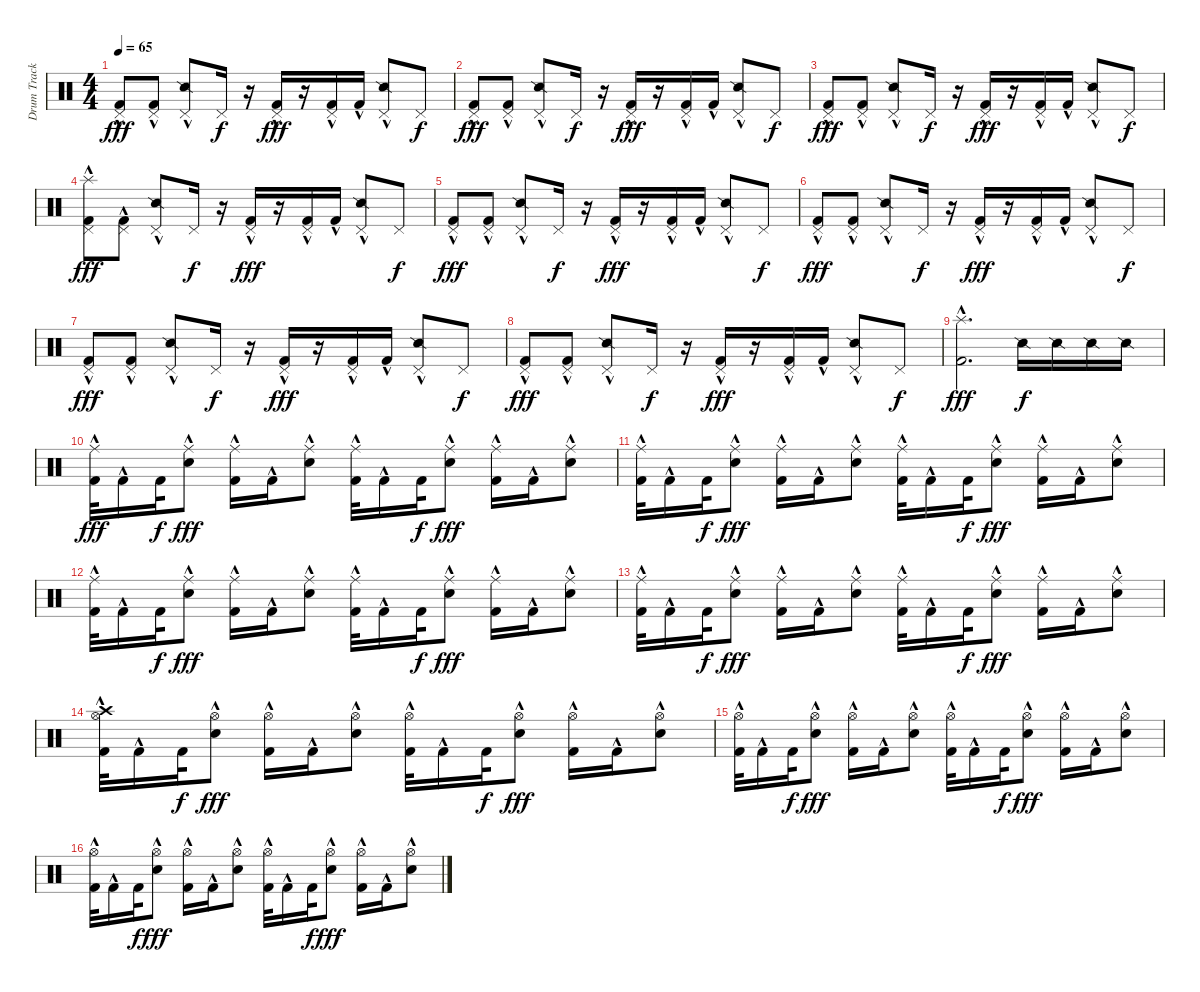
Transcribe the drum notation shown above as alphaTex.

\track ("Drum Track" "Drum Track") {instrument percussion}
\staff {score}
\articulation defaults
\ts (4 4)
\tempo 65
\clef neutral
\ks c
("Pedal Hi-Hat (hit)" "Kick (hit) 2"{hac}).8{dy fff} ("Pedal Hi-Hat (hit)" "Kick (hit) 2"{hac}).8 ("Pedal Hi-Hat (hit)" "Snare (side stick) 2"{hac}).8 "Pedal Hi-Hat (hit)".16{dy f} r.16 ("Pedal Hi-Hat (hit)" "Kick (hit) 2"{hac}).16{dy fff} r.16 ("Pedal Hi-Hat (hit)" "Kick (hit) 2"{hac}).16 "Kick (hit) 2"{hac}.16 ("Pedal Hi-Hat (hit)" "Snare (side stick) 2"{hac}).8 "Pedal Hi-Hat (hit)".8{dy f} |
("Pedal Hi-Hat (hit)" "Kick (hit) 2"{hac}).8{dy fff} ("Pedal Hi-Hat (hit)" "Kick (hit) 2"{hac}).8 ("Pedal Hi-Hat (hit)" "Snare (side stick) 2"{hac}).8 "Pedal Hi-Hat (hit)".16{dy f} r.16 ("Pedal Hi-Hat (hit)" "Kick (hit) 2"{hac}).16{dy fff} r.16 ("Pedal Hi-Hat (hit)" "Kick (hit) 2"{hac}).16 "Kick (hit) 2"{hac}.16 ("Pedal Hi-Hat (hit)" "Snare (side stick) 2"{hac}).8 "Pedal Hi-Hat (hit)".8{dy f} |
("Pedal Hi-Hat (hit)" "Kick (hit) 2"{hac}).8{dy fff} ("Pedal Hi-Hat (hit)" "Kick (hit) 2"{hac}).8 ("Pedal Hi-Hat (hit)" "Snare (side stick) 2"{hac}).8 "Pedal Hi-Hat (hit)".16{dy f} r.16 ("Pedal Hi-Hat (hit)" "Kick (hit) 2"{hac}).16{dy fff} r.16 ("Pedal Hi-Hat (hit)" "Kick (hit) 2"{hac}).16 "Kick (hit) 2"{hac}.16 ("Pedal Hi-Hat (hit)" "Snare (side stick) 2"{hac}).8 "Pedal Hi-Hat (hit)".8{dy f} |
("Splash (hit)" "Pedal Hi-Hat (hit)" "Kick (hit) 2"{hac}).8{dy fff} ("Pedal Hi-Hat (hit)" "Kick (hit) 2"{hac}).8 ("Pedal Hi-Hat (hit)" "Snare (side stick) 2"{hac}).8 "Pedal Hi-Hat (hit)".16{dy f} r.16 ("Pedal Hi-Hat (hit)" "Kick (hit) 2"{hac}).16{dy fff} r.16 ("Pedal Hi-Hat (hit)" "Kick (hit) 2"{hac}).16 "Kick (hit) 2"{hac}.16 ("Pedal Hi-Hat (hit)" "Snare (side stick) 2"{hac}).8 "Pedal Hi-Hat (hit)".8{dy f} |
("Pedal Hi-Hat (hit)" "Kick (hit) 2"{hac}).8{dy fff} ("Pedal Hi-Hat (hit)" "Kick (hit) 2"{hac}).8 ("Pedal Hi-Hat (hit)" "Snare (side stick) 2"{hac}).8 "Pedal Hi-Hat (hit)".16{dy f} r.16 ("Pedal Hi-Hat (hit)" "Kick (hit) 2"{hac}).16{dy fff} r.16 ("Pedal Hi-Hat (hit)" "Kick (hit) 2"{hac}).16 "Kick (hit) 2"{hac}.16 ("Pedal Hi-Hat (hit)" "Snare (side stick) 2"{hac}).8 "Pedal Hi-Hat (hit)".8{dy f} |
("Pedal Hi-Hat (hit)" "Kick (hit) 2"{hac}).8{dy fff} ("Pedal Hi-Hat (hit)" "Kick (hit) 2"{hac}).8 ("Pedal Hi-Hat (hit)" "Snare (side stick) 2"{hac}).8 "Pedal Hi-Hat (hit)".16{dy f} r.16 ("Pedal Hi-Hat (hit)" "Kick (hit) 2"{hac}).16{dy fff} r.16 ("Pedal Hi-Hat (hit)" "Kick (hit) 2"{hac}).16 "Kick (hit) 2"{hac}.16 ("Pedal Hi-Hat (hit)" "Snare (side stick) 2"{hac}).8 "Pedal Hi-Hat (hit)".8{dy f} |
("Pedal Hi-Hat (hit)" "Kick (hit) 2"{hac}).8{dy fff} ("Pedal Hi-Hat (hit)" "Kick (hit) 2"{hac}).8 ("Pedal Hi-Hat (hit)" "Snare (side stick) 2"{hac}).8 "Pedal Hi-Hat (hit)".16{dy f} r.16 ("Pedal Hi-Hat (hit)" "Kick (hit) 2"{hac}).16{dy fff} r.16 ("Pedal Hi-Hat (hit)" "Kick (hit) 2"{hac}).16 "Kick (hit) 2"{hac}.16 ("Pedal Hi-Hat (hit)" "Snare (side stick) 2"{hac}).8 "Pedal Hi-Hat (hit)".8{dy f} |
("Pedal Hi-Hat (hit)" "Kick (hit) 2"{hac}).8{dy fff} ("Pedal Hi-Hat (hit)" "Kick (hit) 2"{hac}).8 ("Pedal Hi-Hat (hit)" "Snare (side stick) 2"{hac}).8 "Pedal Hi-Hat (hit)".16{dy f} r.16 ("Pedal Hi-Hat (hit)" "Kick (hit) 2"{hac}).16{dy fff} r.16 ("Pedal Hi-Hat (hit)" "Kick (hit) 2"{hac}).16 "Kick (hit) 2"{hac}.16 ("Pedal Hi-Hat (hit)" "Snare (side stick) 2"{hac}).8 "Pedal Hi-Hat (hit)".8{dy f} |
("Splash (hit)" "Kick (hit) 2"{hac}).2{d dy fff} "Snare (side stick) 2".16{dy f} "Snare (side stick) 2".16 "Snare (side stick) 2".16 "Snare (side stick) 2".16 |
("Ride (middle)" "Kick (hit) 2"{hac}).32{dy fff} "Kick (hit) 2"{hac}.16 "Kick (hit) 2".32{dy f} ("Ride (middle)" "Electric Snare (hit)"{hac}).8{dy fff} ("Ride (middle)" "Kick (hit) 2"{hac}).16 "Kick (hit) 2"{hac}.16 ("Ride (middle)" "Electric Snare (hit)"{hac}).8 ("Ride (middle)" "Kick (hit) 2"{hac}).32 "Kick (hit) 2"{hac}.16 "Kick (hit) 2".32{dy f} ("Ride (middle)" "Electric Snare (hit)"{hac}).8{dy fff} ("Ride (middle)" "Kick (hit) 2"{hac}).16 "Kick (hit) 2"{hac}.16 ("Ride (middle)" "Electric Snare (hit)"{hac}).8 |
("Ride (middle)" "Kick (hit) 2"{hac}).32 "Kick (hit) 2"{hac}.16 "Kick (hit) 2".32{dy f} ("Ride (middle)" "Electric Snare (hit)"{hac}).8{dy fff} ("Ride (middle)" "Kick (hit) 2"{hac}).16 "Kick (hit) 2"{hac}.16 ("Ride (middle)" "Electric Snare (hit)"{hac}).8 ("Ride (middle)" "Kick (hit) 2"{hac}).32 "Kick (hit) 2"{hac}.16 "Kick (hit) 2".32{dy f} ("Ride (middle)" "Electric Snare (hit)"{hac}).8{dy fff} ("Ride (middle)" "Kick (hit) 2"{hac}).16 "Kick (hit) 2"{hac}.16 ("Ride (middle)" "Electric Snare (hit)"{hac}).8 |
("Ride (middle)" "Kick (hit) 2"{hac}).32 "Kick (hit) 2"{hac}.16 "Kick (hit) 2".32{dy f} ("Ride (middle)" "Electric Snare (hit)"{hac}).8{dy fff} ("Ride (middle)" "Kick (hit) 2"{hac}).16 "Kick (hit) 2"{hac}.16 ("Ride (middle)" "Electric Snare (hit)"{hac}).8 ("Ride (middle)" "Kick (hit) 2"{hac}).32 "Kick (hit) 2"{hac}.16 "Kick (hit) 2".32{dy f} ("Ride (middle)" "Electric Snare (hit)"{hac}).8{dy fff} ("Ride (middle)" "Kick (hit) 2"{hac}).16 "Kick (hit) 2"{hac}.16 ("Ride (middle)" "Electric Snare (hit)"{hac}).8 |
("Ride (middle)" "Kick (hit) 2"{hac}).32 "Kick (hit) 2"{hac}.16 "Kick (hit) 2".32{dy f} ("Ride (middle)" "Electric Snare (hit)"{hac}).8{dy fff} ("Ride (middle)" "Kick (hit) 2"{hac}).16 "Kick (hit) 2"{hac}.16 ("Ride (middle)" "Electric Snare (hit)"{hac}).8 ("Ride (middle)" "Kick (hit) 2"{hac}).32 "Kick (hit) 2"{hac}.16 "Kick (hit) 2".32{dy f} ("Ride (middle)" "Electric Snare (hit)"{hac}).8{dy fff} ("Ride (middle)" "Kick (hit) 2"{hac}).16 "Kick (hit) 2"{hac}.16 ("Ride (middle)" "Electric Snare (hit)"{hac}).8 |
("Crash high (hit)" "Hi-Hat (open)" "Kick (hit) 2"{hac}).32 "Kick (hit) 2"{hac}.16 "Kick (hit) 2".32{dy f} ("Hi-Hat (open)" "Electric Snare (hit)"{hac}).8{dy fff} ("Hi-Hat (open)" "Kick (hit) 2"{hac}).16 "Kick (hit) 2"{hac}.16 ("Hi-Hat (open)" "Electric Snare (hit)"{hac}).8 ("Hi-Hat (open)" "Kick (hit) 2"{hac}).32 "Kick (hit) 2"{hac}.16 "Kick (hit) 2".32{dy f} ("Hi-Hat (open)" "Electric Snare (hit)"{hac}).8{dy fff} ("Hi-Hat (open)" "Kick (hit) 2"{hac}).16 "Kick (hit) 2"{hac}.16 ("Hi-Hat (open)" "Electric Snare (hit)"{hac}).8 |
("Hi-Hat (open)" "Kick (hit) 2"{hac}).32 "Kick (hit) 2"{hac}.16 "Kick (hit) 2".32{dy f} ("Hi-Hat (open)" "Electric Snare (hit)"{hac}).8{dy fff} ("Hi-Hat (open)" "Kick (hit) 2"{hac}).16 "Kick (hit) 2"{hac}.16 ("Hi-Hat (open)" "Electric Snare (hit)"{hac}).8 ("Hi-Hat (open)" "Kick (hit) 2"{hac}).32 "Kick (hit) 2"{hac}.16 "Kick (hit) 2".32{dy f} ("Hi-Hat (open)" "Electric Snare (hit)"{hac}).8{dy fff} ("Hi-Hat (open)" "Kick (hit) 2"{hac}).16 "Kick (hit) 2"{hac}.16 ("Hi-Hat (open)" "Electric Snare (hit)"{hac}).8 |
("Hi-Hat (open)" "Kick (hit) 2"{hac}).32 "Kick (hit) 2"{hac}.16 "Kick (hit) 2".32{dy f} ("Hi-Hat (open)" "Electric Snare (hit)"{hac}).8{dy fff} ("Hi-Hat (open)" "Kick (hit) 2"{hac}).16 "Kick (hit) 2"{hac}.16 ("Hi-Hat (open)" "Electric Snare (hit)"{hac}).8 ("Hi-Hat (open)" "Kick (hit) 2"{hac}).32 "Kick (hit) 2"{hac}.16 "Kick (hit) 2".32{dy f} ("Hi-Hat (open)" "Electric Snare (hit)"{hac}).8{dy fff} ("Hi-Hat (open)" "Kick (hit) 2"{hac}).16 "Kick (hit) 2"{hac}.16 ("Hi-Hat (open)" "Electric Snare (hit)"{hac}).8
